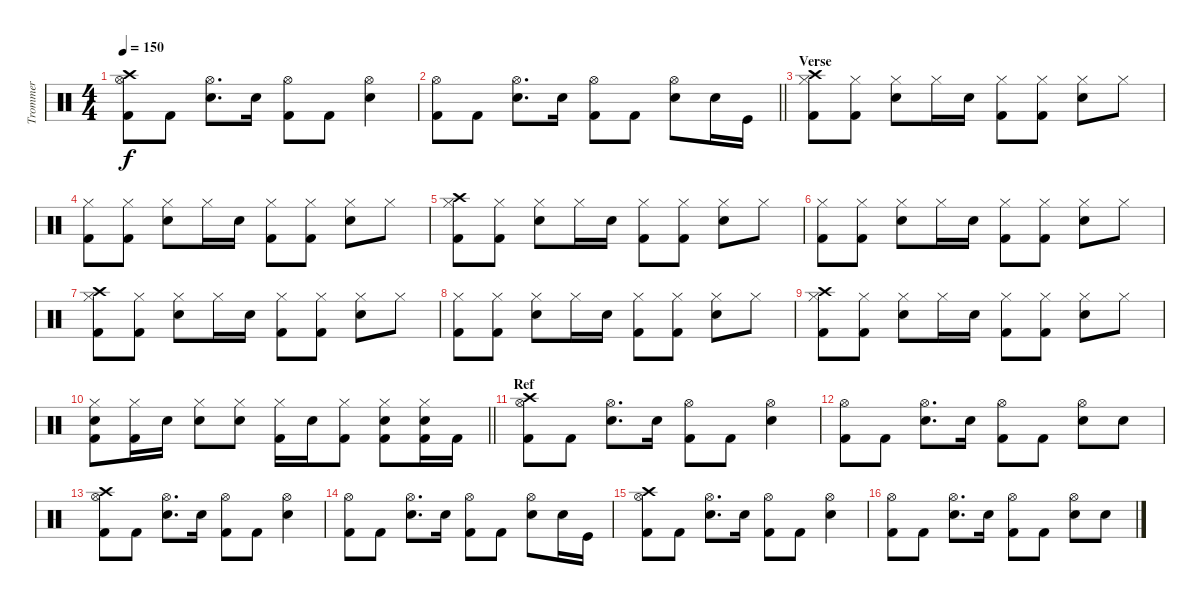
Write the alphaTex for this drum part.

\track ("Trommer" "Trommer") {instrument percussion}
\staff {score}
\articulation defaults
\ts (4 4)
\tempo 150
\clef neutral
\ks c
("Kick (hit) 2" "Hi-Hat (open)" "Crash high (hit)").8{dy f} "Kick (hit) 2".8 ("Electric Snare (hit)" "Hi-Hat (open)").8{d} "Electric Snare (hit)".16 ("Kick (hit) 2" "Hi-Hat (open)").8 "Kick (hit) 2".8 ("Electric Snare (hit)" "Hi-Hat (open)").4 |
\barLineRight lightlight
("Kick (hit) 2" "Hi-Hat (open)").8 "Kick (hit) 2".8 ("Electric Snare (hit)" "Hi-Hat (open)").8{d} "Electric Snare (hit)".16 ("Kick (hit) 2" "Hi-Hat (open)").8 "Kick (hit) 2".8 ("Electric Snare (hit)" "Hi-Hat (open)").8 "Electric Snare (hit)".16 "Kick (hit)".16 |
\section ("" "Verse")
("Kick (hit) 2" "Hi-Hat (closed)" "Crash high (hit)").8 ("Kick (hit) 2" "Hi-Hat (closed)").8 ("Electric Snare (hit)" "Hi-Hat (closed)").8 "Hi-Hat (closed)".16 "Electric Snare (hit)".16 ("Kick (hit) 2" "Hi-Hat (closed)").8 ("Kick (hit) 2" "Hi-Hat (closed)").8 ("Electric Snare (hit)" "Hi-Hat (closed)").8 "Hi-Hat (closed)".8 |
("Kick (hit) 2" "Hi-Hat (closed)").8 ("Kick (hit) 2" "Hi-Hat (closed)").8 ("Electric Snare (hit)" "Hi-Hat (closed)").8 "Hi-Hat (closed)".16 "Electric Snare (hit)".16 ("Kick (hit) 2" "Hi-Hat (closed)").8 ("Kick (hit) 2" "Hi-Hat (closed)").8 ("Electric Snare (hit)" "Hi-Hat (closed)").8 "Hi-Hat (closed)".8 |
("Kick (hit) 2" "Hi-Hat (closed)" "Crash high (hit)").8 ("Kick (hit) 2" "Hi-Hat (closed)").8 ("Electric Snare (hit)" "Hi-Hat (closed)").8 "Hi-Hat (closed)".16 "Electric Snare (hit)".16 ("Kick (hit) 2" "Hi-Hat (closed)").8 ("Kick (hit) 2" "Hi-Hat (closed)").8 ("Electric Snare (hit)" "Hi-Hat (closed)").8 "Hi-Hat (closed)".8 |
("Kick (hit) 2" "Hi-Hat (closed)").8 ("Kick (hit) 2" "Hi-Hat (closed)").8 ("Electric Snare (hit)" "Hi-Hat (closed)").8 "Hi-Hat (closed)".16 "Electric Snare (hit)".16 ("Kick (hit) 2" "Hi-Hat (closed)").8 ("Kick (hit) 2" "Hi-Hat (closed)").8 ("Electric Snare (hit)" "Hi-Hat (closed)").8 "Hi-Hat (closed)".8 |
("Kick (hit) 2" "Hi-Hat (closed)" "Crash high (hit)").8 ("Kick (hit) 2" "Hi-Hat (closed)").8 ("Electric Snare (hit)" "Hi-Hat (closed)").8 "Hi-Hat (closed)".16 "Electric Snare (hit)".16 ("Kick (hit) 2" "Hi-Hat (closed)").8 ("Kick (hit) 2" "Hi-Hat (closed)").8 ("Electric Snare (hit)" "Hi-Hat (closed)").8 "Hi-Hat (closed)".8 |
("Kick (hit) 2" "Hi-Hat (closed)").8 ("Kick (hit) 2" "Hi-Hat (closed)").8 ("Electric Snare (hit)" "Hi-Hat (closed)").8 "Hi-Hat (closed)".16 "Electric Snare (hit)".16 ("Kick (hit) 2" "Hi-Hat (closed)").8 ("Kick (hit) 2" "Hi-Hat (closed)").8 ("Electric Snare (hit)" "Hi-Hat (closed)").8 "Hi-Hat (closed)".8 |
("Kick (hit) 2" "Hi-Hat (closed)" "Crash high (hit)").8 ("Kick (hit) 2" "Hi-Hat (closed)").8 ("Electric Snare (hit)" "Hi-Hat (closed)").8 "Hi-Hat (closed)".16 "Electric Snare (hit)".16 ("Kick (hit) 2" "Hi-Hat (closed)").8 ("Kick (hit) 2" "Hi-Hat (closed)").8 ("Electric Snare (hit)" "Hi-Hat (closed)").8 "Hi-Hat (closed)".8 |
\barLineRight lightlight
("Kick (hit) 2" "Hi-Hat (closed)" "Electric Snare (hit)").8 ("Kick (hit) 2" "Hi-Hat (closed)").16 "Electric Snare (hit)".16 ("Electric Snare (hit)" "Hi-Hat (closed)").8 ("Hi-Hat (closed)" "Electric Snare (hit)").8 ("Kick (hit) 2" "Hi-Hat (closed)").16 "Electric Snare (hit)".16 ("Kick (hit) 2" "Hi-Hat (closed)").8 ("Electric Snare (hit)" "Hi-Hat (closed)" "Kick (hit) 2").8 ("Electric Snare (hit)" "Hi-Hat (closed)" "Kick (hit) 2").16 "Kick (hit) 2".16 |
\section ("" "Ref")
("Kick (hit) 2" "Hi-Hat (open)" "Crash high (hit)").8 "Kick (hit) 2".8 ("Electric Snare (hit)" "Hi-Hat (open)").8{d} "Electric Snare (hit)".16 ("Kick (hit) 2" "Hi-Hat (open)").8 "Kick (hit) 2".8 ("Electric Snare (hit)" "Hi-Hat (open)").4 |
("Kick (hit) 2" "Hi-Hat (open)").8 "Kick (hit) 2".8 ("Electric Snare (hit)" "Hi-Hat (open)").8{d} "Electric Snare (hit)".16 ("Kick (hit) 2" "Hi-Hat (open)").8 "Kick (hit) 2".8 ("Electric Snare (hit)" "Hi-Hat (open)").8 "Electric Snare (hit)".8 |
("Kick (hit) 2" "Hi-Hat (open)" "Crash high (hit)").8 "Kick (hit) 2".8 ("Electric Snare (hit)" "Hi-Hat (open)").8{d} "Electric Snare (hit)".16 ("Kick (hit) 2" "Hi-Hat (open)").8 "Kick (hit) 2".8 ("Electric Snare (hit)" "Hi-Hat (open)").4 |
("Kick (hit) 2" "Hi-Hat (open)").8 "Kick (hit) 2".8 ("Electric Snare (hit)" "Hi-Hat (open)").8{d} "Electric Snare (hit)".16 ("Kick (hit) 2" "Hi-Hat (open)").8 "Kick (hit) 2".8 ("Electric Snare (hit)" "Hi-Hat (open)").8 "Electric Snare (hit)".16 "Kick (hit)".16 |
("Kick (hit) 2" "Hi-Hat (open)" "Crash high (hit)").8 "Kick (hit) 2".8 ("Electric Snare (hit)" "Hi-Hat (open)").8{d} "Electric Snare (hit)".16 ("Kick (hit) 2" "Hi-Hat (open)").8 "Kick (hit) 2".8 ("Electric Snare (hit)" "Hi-Hat (open)").4 |
("Kick (hit) 2" "Hi-Hat (open)").8 "Kick (hit) 2".8 ("Electric Snare (hit)" "Hi-Hat (open)").8{d} "Electric Snare (hit)".16 ("Kick (hit) 2" "Hi-Hat (open)").8 "Kick (hit) 2".8 ("Electric Snare (hit)" "Hi-Hat (open)").8 "Electric Snare (hit)".8
